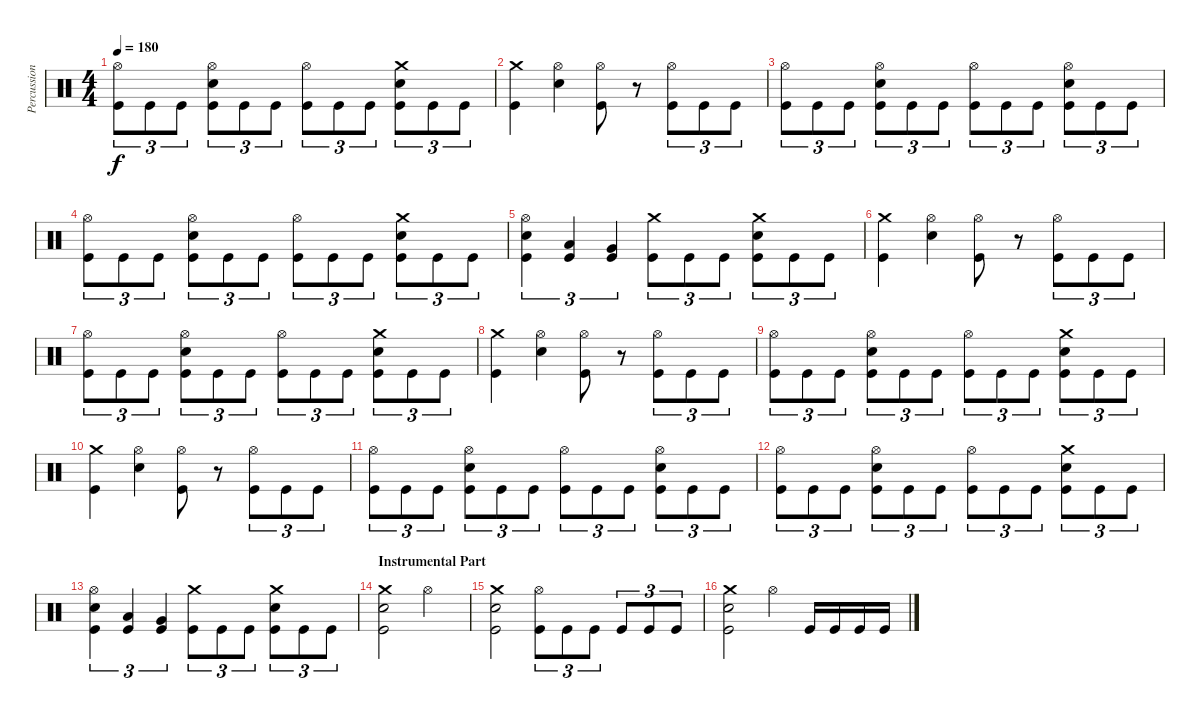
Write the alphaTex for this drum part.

\track ("Percussion" "Percussion") {instrument percussion}
\staff {score}
\articulation defaults
\ts (4 4)
\tempo 180
\clef neutral
\ks c
("Hi-Hat (open)" "Kick (hit)").8{tu (3 2) dy f} "Kick (hit)".8{tu (3 2)} "Kick (hit)".8{tu (3 2)} ("Hi-Hat (open)" "Electric Snare (hit)" "Kick (hit)").8{tu (3 2)} "Kick (hit)".8{tu (3 2)} "Kick (hit)".8{tu (3 2)} ("Hi-Hat (open)" "Kick (hit)").8{tu (3 2)} "Kick (hit)".8{tu (3 2)} "Kick (hit)".8{tu (3 2)} ("Crash medium (hit)" "Electric Snare (hit)" "Kick (hit)").8{tu (3 2)} "Kick (hit)".8{tu (3 2)} "Kick (hit)".8{tu (3 2)} |
("Crash medium (hit)" "Kick (hit)").4 ("Hi-Hat (open)" "Electric Snare (hit)").4 ("Hi-Hat (open)" "Kick (hit)").8 r.8 ("Hi-Hat (open)" "Kick (hit)").8{tu (3 2)} "Kick (hit)".8{tu (3 2)} "Kick (hit)".8{tu (3 2)} |
("Hi-Hat (open)" "Kick (hit)").8{tu (3 2)} "Kick (hit)".8{tu (3 2)} "Kick (hit)".8{tu (3 2)} ("Hi-Hat (open)" "Electric Snare (hit)" "Kick (hit)").8{tu (3 2)} "Kick (hit)".8{tu (3 2)} "Kick (hit)".8{tu (3 2)} ("Hi-Hat (open)" "Kick (hit)").8{tu (3 2)} "Kick (hit)".8{tu (3 2)} "Kick (hit)".8{tu (3 2)} ("Hi-Hat (open)" "Electric Snare (hit)" "Kick (hit)").8{tu (3 2)} "Kick (hit)".8{tu (3 2)} "Kick (hit)".8{tu (3 2)} |
("Hi-Hat (open)" "Kick (hit)").8{tu (3 2)} "Kick (hit)".8{tu (3 2)} "Kick (hit)".8{tu (3 2)} ("Hi-Hat (open)" "Electric Snare (hit)" "Kick (hit)").8{tu (3 2)} "Kick (hit)".8{tu (3 2)} "Kick (hit)".8{tu (3 2)} ("Hi-Hat (open)" "Kick (hit)").8{tu (3 2)} "Kick (hit)".8{tu (3 2)} "Kick (hit)".8{tu (3 2)} ("Crash medium (hit)" "Electric Snare (hit)" "Kick (hit)").8{tu (3 2)} "Kick (hit)".8{tu (3 2)} "Kick (hit)".8{tu (3 2)} |
("Hi-Hat (open)" "Electric Snare (hit)" "Kick (hit)").4{tu (3 2)} ("Low Tom (hit)" "Kick (hit)").4{tu (3 2)} ("Very Low Tom (hit)" "Kick (hit)").4{tu (3 2)} ("Crash medium (hit)" "Kick (hit)").8{tu (3 2)} "Kick (hit)".8{tu (3 2)} "Kick (hit)".8{tu (3 2)} ("Crash medium (hit)" "Electric Snare (hit)" "Kick (hit)").8{tu (3 2)} "Kick (hit)".8{tu (3 2)} "Kick (hit)".8{tu (3 2)} |
("Crash medium (hit)" "Kick (hit)").4 ("Hi-Hat (open)" "Electric Snare (hit)").4 ("Hi-Hat (open)" "Kick (hit)").8 r.8 ("Hi-Hat (open)" "Kick (hit)").8{tu (3 2)} "Kick (hit)".8{tu (3 2)} "Kick (hit)".8{tu (3 2)} |
("Hi-Hat (open)" "Kick (hit)").8{tu (3 2)} "Kick (hit)".8{tu (3 2)} "Kick (hit)".8{tu (3 2)} ("Hi-Hat (open)" "Electric Snare (hit)" "Kick (hit)").8{tu (3 2)} "Kick (hit)".8{tu (3 2)} "Kick (hit)".8{tu (3 2)} ("Hi-Hat (open)" "Kick (hit)").8{tu (3 2)} "Kick (hit)".8{tu (3 2)} "Kick (hit)".8{tu (3 2)} ("Crash medium (hit)" "Electric Snare (hit)" "Kick (hit)").8{tu (3 2)} "Kick (hit)".8{tu (3 2)} "Kick (hit)".8{tu (3 2)} |
("Crash medium (hit)" "Kick (hit)").4 ("Hi-Hat (open)" "Electric Snare (hit)").4 ("Hi-Hat (open)" "Kick (hit)").8 r.8 ("Hi-Hat (open)" "Kick (hit)").8{tu (3 2)} "Kick (hit)".8{tu (3 2)} "Kick (hit)".8{tu (3 2)} |
("Hi-Hat (open)" "Kick (hit)").8{tu (3 2)} "Kick (hit)".8{tu (3 2)} "Kick (hit)".8{tu (3 2)} ("Hi-Hat (open)" "Electric Snare (hit)" "Kick (hit)").8{tu (3 2)} "Kick (hit)".8{tu (3 2)} "Kick (hit)".8{tu (3 2)} ("Hi-Hat (open)" "Kick (hit)").8{tu (3 2)} "Kick (hit)".8{tu (3 2)} "Kick (hit)".8{tu (3 2)} ("Crash medium (hit)" "Electric Snare (hit)" "Kick (hit)").8{tu (3 2)} "Kick (hit)".8{tu (3 2)} "Kick (hit)".8{tu (3 2)} |
("Crash medium (hit)" "Kick (hit)").4 ("Hi-Hat (open)" "Electric Snare (hit)").4 ("Hi-Hat (open)" "Kick (hit)").8 r.8 ("Hi-Hat (open)" "Kick (hit)").8{tu (3 2)} "Kick (hit)".8{tu (3 2)} "Kick (hit)".8{tu (3 2)} |
("Hi-Hat (open)" "Kick (hit)").8{tu (3 2)} "Kick (hit)".8{tu (3 2)} "Kick (hit)".8{tu (3 2)} ("Hi-Hat (open)" "Electric Snare (hit)" "Kick (hit)").8{tu (3 2)} "Kick (hit)".8{tu (3 2)} "Kick (hit)".8{tu (3 2)} ("Hi-Hat (open)" "Kick (hit)").8{tu (3 2)} "Kick (hit)".8{tu (3 2)} "Kick (hit)".8{tu (3 2)} ("Hi-Hat (open)" "Electric Snare (hit)" "Kick (hit)").8{tu (3 2)} "Kick (hit)".8{tu (3 2)} "Kick (hit)".8{tu (3 2)} |
("Hi-Hat (open)" "Kick (hit)").8{tu (3 2)} "Kick (hit)".8{tu (3 2)} "Kick (hit)".8{tu (3 2)} ("Hi-Hat (open)" "Electric Snare (hit)" "Kick (hit)").8{tu (3 2)} "Kick (hit)".8{tu (3 2)} "Kick (hit)".8{tu (3 2)} ("Hi-Hat (open)" "Kick (hit)").8{tu (3 2)} "Kick (hit)".8{tu (3 2)} "Kick (hit)".8{tu (3 2)} ("Crash medium (hit)" "Electric Snare (hit)" "Kick (hit)").8{tu (3 2)} "Kick (hit)".8{tu (3 2)} "Kick (hit)".8{tu (3 2)} |
("Hi-Hat (open)" "Electric Snare (hit)" "Kick (hit)").4{tu (3 2)} ("Low Tom (hit)" "Kick (hit)").4{tu (3 2)} ("Very Low Tom (hit)" "Kick (hit)").4{tu (3 2)} ("Crash medium (hit)" "Kick (hit)").8{tu (3 2)} "Kick (hit)".8{tu (3 2)} "Kick (hit)".8{tu (3 2)} ("Crash medium (hit)" "Electric Snare (hit)" "Kick (hit)").8{tu (3 2)} "Kick (hit)".8{tu (3 2)} "Kick (hit)".8{tu (3 2)} |
\section ("" "Instrumental Part")
("Crash medium (hit)" "Electric Snare (hit)" "Kick (hit)").2 "Hi-Hat (open)".2 |
("Crash medium (hit)" "Electric Snare (hit)" "Kick (hit)").2 ("Hi-Hat (open)" "Kick (hit)").8{tu (3 2)} "Kick (hit)".8{tu (3 2)} "Kick (hit)".8{tu (3 2)} "Kick (hit)".8{tu (3 2)} "Kick (hit)".8{tu (3 2)} "Kick (hit)".8{tu (3 2)} |
("Crash medium (hit)" "Electric Snare (hit)" "Kick (hit)").2 "Hi-Hat (open)".4 "Kick (hit)".16 "Kick (hit)".16 "Kick (hit)".16 "Kick (hit)".16
